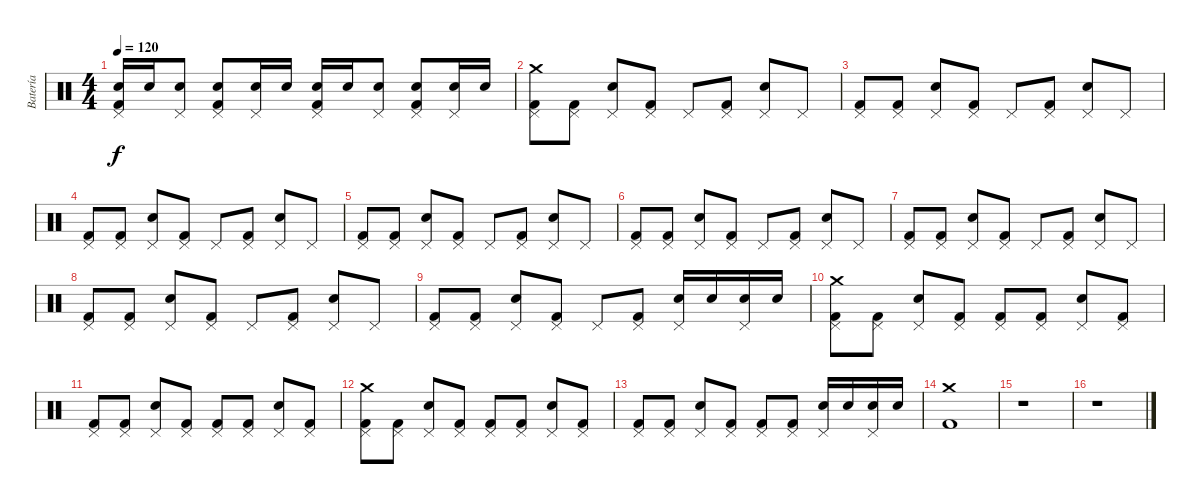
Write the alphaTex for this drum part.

\track ("Batería" "Batería") {instrument percussion}
\staff {score}
\articulation defaults
\ts (4 4)
\tempo 120
\clef neutral
\ks c
("Kick (hit) 2" "Snare (hit) 2" "Pedal Hi-Hat (hit)").16{dy f} "Snare (hit) 2".16 ("Snare (hit) 2" "Pedal Hi-Hat (hit)").8 ("Kick (hit) 2" "Snare (hit) 2" "Pedal Hi-Hat (hit)").8 ("Snare (hit) 2" "Pedal Hi-Hat (hit)").16 "Snare (hit) 2".16 ("Kick (hit) 2" "Snare (hit) 2" "Pedal Hi-Hat (hit)").16 "Snare (hit) 2".16 ("Snare (hit) 2" "Pedal Hi-Hat (hit)").8 ("Kick (hit) 2" "Snare (hit) 2" "Pedal Hi-Hat (hit)").8 ("Snare (hit) 2" "Pedal Hi-Hat (hit)").16 "Snare (hit) 2".16 |
("Pedal Hi-Hat (hit)" "Crash medium (hit)" "Kick (hit) 2").8 ("Pedal Hi-Hat (hit)" "Kick (hit) 2").8 ("Pedal Hi-Hat (hit)" "Snare (hit) 2").8 ("Pedal Hi-Hat (hit)" "Kick (hit) 2").8 "Pedal Hi-Hat (hit)".8 ("Pedal Hi-Hat (hit)" "Kick (hit) 2").8 ("Pedal Hi-Hat (hit)" "Snare (hit) 2").8 "Pedal Hi-Hat (hit)".8 |
("Pedal Hi-Hat (hit)" "Kick (hit) 2").8 ("Pedal Hi-Hat (hit)" "Kick (hit) 2").8 ("Pedal Hi-Hat (hit)" "Snare (hit) 2").8 ("Pedal Hi-Hat (hit)" "Kick (hit) 2").8 "Pedal Hi-Hat (hit)".8 ("Pedal Hi-Hat (hit)" "Kick (hit) 2").8 ("Pedal Hi-Hat (hit)" "Snare (hit) 2").8 "Pedal Hi-Hat (hit)".8 |
("Pedal Hi-Hat (hit)" "Kick (hit) 2").8 ("Pedal Hi-Hat (hit)" "Kick (hit) 2").8 ("Pedal Hi-Hat (hit)" "Snare (hit) 2").8 ("Pedal Hi-Hat (hit)" "Kick (hit) 2").8 "Pedal Hi-Hat (hit)".8 ("Pedal Hi-Hat (hit)" "Kick (hit) 2").8 ("Pedal Hi-Hat (hit)" "Snare (hit) 2").8 "Pedal Hi-Hat (hit)".8 |
("Pedal Hi-Hat (hit)" "Kick (hit) 2").8 ("Pedal Hi-Hat (hit)" "Kick (hit) 2").8 ("Pedal Hi-Hat (hit)" "Snare (hit) 2").8 ("Pedal Hi-Hat (hit)" "Kick (hit) 2").8 "Pedal Hi-Hat (hit)".8 ("Pedal Hi-Hat (hit)" "Kick (hit) 2").8 ("Pedal Hi-Hat (hit)" "Snare (hit) 2").8 "Pedal Hi-Hat (hit)".8 |
("Pedal Hi-Hat (hit)" "Kick (hit) 2").8 ("Pedal Hi-Hat (hit)" "Kick (hit) 2").8 ("Pedal Hi-Hat (hit)" "Snare (hit) 2").8 ("Pedal Hi-Hat (hit)" "Kick (hit) 2").8 "Pedal Hi-Hat (hit)".8 ("Pedal Hi-Hat (hit)" "Kick (hit) 2").8 ("Pedal Hi-Hat (hit)" "Snare (hit) 2").8 "Pedal Hi-Hat (hit)".8 |
("Pedal Hi-Hat (hit)" "Kick (hit) 2").8 ("Pedal Hi-Hat (hit)" "Kick (hit) 2").8 ("Pedal Hi-Hat (hit)" "Snare (hit) 2").8 ("Pedal Hi-Hat (hit)" "Kick (hit) 2").8 "Pedal Hi-Hat (hit)".8 ("Pedal Hi-Hat (hit)" "Kick (hit) 2").8 ("Pedal Hi-Hat (hit)" "Snare (hit) 2").8 "Pedal Hi-Hat (hit)".8 |
("Pedal Hi-Hat (hit)" "Kick (hit) 2").8 ("Pedal Hi-Hat (hit)" "Kick (hit) 2").8 ("Pedal Hi-Hat (hit)" "Snare (hit) 2").8 ("Pedal Hi-Hat (hit)" "Kick (hit) 2").8 "Pedal Hi-Hat (hit)".8 ("Pedal Hi-Hat (hit)" "Kick (hit) 2").8 ("Pedal Hi-Hat (hit)" "Snare (hit) 2").8 "Pedal Hi-Hat (hit)".8 |
("Pedal Hi-Hat (hit)" "Kick (hit) 2").8 ("Pedal Hi-Hat (hit)" "Kick (hit) 2").8 ("Pedal Hi-Hat (hit)" "Snare (hit) 2").8 ("Pedal Hi-Hat (hit)" "Kick (hit) 2").8 "Pedal Hi-Hat (hit)".8 ("Pedal Hi-Hat (hit)" "Kick (hit) 2").8 ("Snare (hit) 2" "Pedal Hi-Hat (hit)").16 "Snare (hit) 2".16 ("Snare (hit) 2" "Pedal Hi-Hat (hit)").16 "Snare (hit) 2".16 |
("Crash medium (hit)" "Pedal Hi-Hat (hit)" "Kick (hit) 2").8 ("Pedal Hi-Hat (hit)" "Kick (hit) 2").8 ("Pedal Hi-Hat (hit)" "Snare (hit) 2").8 ("Kick (hit) 2" "Pedal Hi-Hat (hit)").8 ("Kick (hit) 2" "Pedal Hi-Hat (hit)").8 ("Pedal Hi-Hat (hit)" "Kick (hit) 2").8 ("Pedal Hi-Hat (hit)" "Snare (hit) 2").8 ("Kick (hit) 2" "Pedal Hi-Hat (hit)").8 |
("Pedal Hi-Hat (hit)" "Kick (hit) 2").8 ("Pedal Hi-Hat (hit)" "Kick (hit) 2").8 ("Pedal Hi-Hat (hit)" "Snare (hit) 2").8 ("Kick (hit) 2" "Pedal Hi-Hat (hit)").8 ("Kick (hit) 2" "Pedal Hi-Hat (hit)").8 ("Pedal Hi-Hat (hit)" "Kick (hit) 2").8 ("Pedal Hi-Hat (hit)" "Snare (hit) 2").8 ("Kick (hit) 2" "Pedal Hi-Hat (hit)").8 |
("Crash medium (hit)" "Pedal Hi-Hat (hit)" "Kick (hit) 2").8 ("Pedal Hi-Hat (hit)" "Kick (hit) 2").8 ("Pedal Hi-Hat (hit)" "Snare (hit) 2").8 ("Kick (hit) 2" "Pedal Hi-Hat (hit)").8 ("Kick (hit) 2" "Pedal Hi-Hat (hit)").8 ("Pedal Hi-Hat (hit)" "Kick (hit) 2").8 ("Pedal Hi-Hat (hit)" "Snare (hit) 2").8 ("Kick (hit) 2" "Pedal Hi-Hat (hit)").8 |
("Pedal Hi-Hat (hit)" "Kick (hit) 2").8 ("Pedal Hi-Hat (hit)" "Kick (hit) 2").8 ("Pedal Hi-Hat (hit)" "Snare (hit) 2").8 ("Kick (hit) 2" "Pedal Hi-Hat (hit)").8 ("Kick (hit) 2" "Pedal Hi-Hat (hit)").8 ("Pedal Hi-Hat (hit)" "Kick (hit) 2").8 ("Snare (hit) 2" "Pedal Hi-Hat (hit)").16 "Snare (hit) 2".16 ("Snare (hit) 2" "Pedal Hi-Hat (hit)").16 "Snare (hit) 2".16 |
("Crash medium (hit)" "Kick (hit) 2").1 |
r.1 |
r.1
